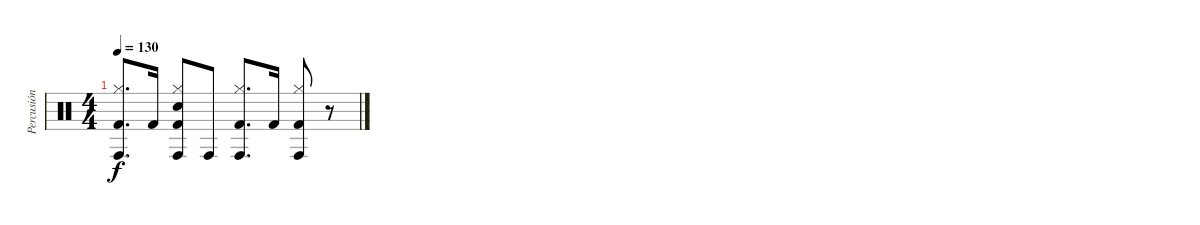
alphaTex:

\track ("Percusión" "Percusión") {instrument percussion}
\staff {score}
\articulation defaults
\ts (4 4)
\tempo 130
\clef neutral
\ks c
("Hi-Hat (closed)" "Kick (hit) 2" "Conga high (hit)").8{d dy f} "Kick (hit) 2".16 ("Electric Snare (hit)" "Hi-Hat (closed)" "Kick (hit) 2" "Conga high (hit)").8 "Conga high (hit)".8 ("Hi-Hat (closed)" "Kick (hit) 2" "Conga high (hit)").8{d} "Kick (hit) 2".16 ("Hi-Hat (closed)" "Kick (hit) 2" "Conga high (hit)").8 r.8
